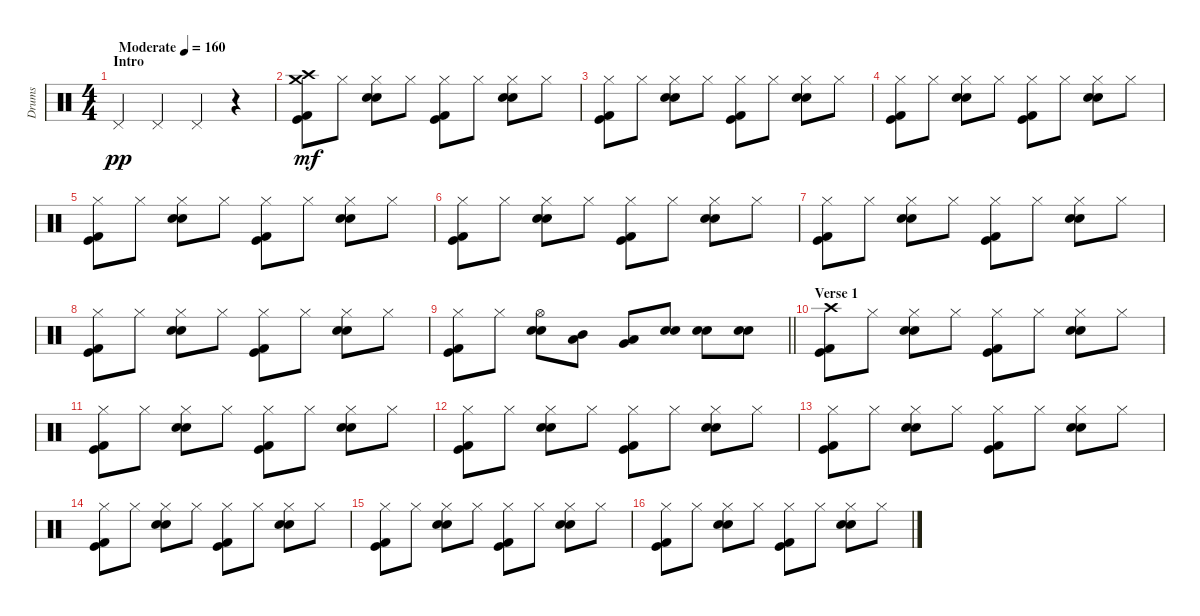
\track ("Drums" "Drums") {instrument percussion}
\staff {score}
\articulation defaults
\ts (4 4)
\section ("" "Intro")
\tempo (160 "Moderate")
\clef neutral
\ks c "Pedal Hi-Hat (hit)".4{dy pp} "Pedal Hi-Hat (hit)".4 "Pedal Hi-Hat (hit)".4
r.4 |
("Crash high (hit)" "Crash medium (hit)" "Kick (hit) 2" "Kick (hit)").8{dy mf} "Hi-Hat (closed)".8 ("Hi-Hat (closed)" "Snare (hit) 2" "Electric Snare (hit)").8 "Hi-Hat (closed)".8 ("Hi-Hat (closed)" "Kick (hit) 2" "Kick (hit)").8 "Hi-Hat (closed)".8 ("Hi-Hat (closed)" "Snare (hit) 2" "Electric Snare (hit)").8 "Hi-Hat (closed)".8 |
("Hi-Hat (closed)" "Kick (hit) 2" "Kick (hit)").8 "Hi-Hat (closed)".8 ("Hi-Hat (closed)" "Snare (hit) 2" "Electric Snare (hit)").8 "Hi-Hat (closed)".8 ("Hi-Hat (closed)" "Kick (hit) 2" "Kick (hit)").8 "Hi-Hat (closed)".8 ("Hi-Hat (closed)" "Snare (hit) 2" "Electric Snare (hit)").8 "Hi-Hat (closed)".8 |
("Hi-Hat (closed)" "Kick (hit) 2" "Kick (hit)").8 "Hi-Hat (closed)".8 ("Hi-Hat (closed)" "Snare (hit) 2" "Electric Snare (hit)").8 "Hi-Hat (closed)".8 ("Hi-Hat (closed)" "Kick (hit) 2" "Kick (hit)").8 "Hi-Hat (closed)".8 ("Hi-Hat (closed)" "Snare (hit) 2" "Electric Snare (hit)").8 "Hi-Hat (closed)".8 |
("Hi-Hat (closed)" "Kick (hit) 2" "Kick (hit)").8 "Hi-Hat (closed)".8 ("Hi-Hat (closed)" "Snare (hit) 2" "Electric Snare (hit)").8 "Hi-Hat (closed)".8 ("Hi-Hat (closed)" "Kick (hit) 2" "Kick (hit)").8 "Hi-Hat (closed)".8 ("Hi-Hat (closed)" "Snare (hit) 2" "Electric Snare (hit)").8 "Hi-Hat (closed)".8 |
("Hi-Hat (closed)" "Kick (hit) 2" "Kick (hit)").8 "Hi-Hat (closed)".8 ("Hi-Hat (closed)" "Snare (hit) 2" "Electric Snare (hit)").8 "Hi-Hat (closed)".8 ("Hi-Hat (closed)" "Kick (hit) 2" "Kick (hit)").8 "Hi-Hat (closed)".8 ("Hi-Hat (closed)" "Snare (hit) 2" "Electric Snare (hit)").8 "Hi-Hat (closed)".8 |
("Hi-Hat (closed)" "Kick (hit) 2" "Kick (hit)").8 "Hi-Hat (closed)".8 ("Hi-Hat (closed)" "Snare (hit) 2" "Electric Snare (hit)").8 "Hi-Hat (closed)".8 ("Hi-Hat (closed)" "Kick (hit) 2" "Kick (hit)").8 "Hi-Hat (closed)".8 ("Hi-Hat (closed)" "Snare (hit) 2" "Electric Snare (hit)").8 "Hi-Hat (closed)".8 |
("Hi-Hat (closed)" "Kick (hit) 2" "Kick (hit)").8 "Hi-Hat (closed)".8 ("Hi-Hat (closed)" "Snare (hit) 2" "Electric Snare (hit)").8 "Hi-Hat (closed)".8 ("Hi-Hat (closed)" "Kick (hit) 2" "Kick (hit)").8 "Hi-Hat (closed)".8 ("Hi-Hat (closed)" "Snare (hit) 2" "Electric Snare (hit)").8 "Hi-Hat (closed)".8 |
\barLineRight lightlight
("Hi-Hat (closed)" "Kick (hit) 2" "Kick (hit)").8 "Hi-Hat (closed)".8 ("Hi-Hat (open)" "Snare (hit) 2" "Electric Snare (hit)").8 ("Low Tom (hit)" "Mid Tom (hit)").8 ("Very Low Tom (hit)" "Low Tom (hit)").8 ("Snare (hit) 2" "Electric Snare (hit)").8 ("Snare (hit) 2" "Electric Snare (hit)").8 ("Snare (hit) 2" "Electric Snare (hit)").8 |
\section ("" "Verse 1")
("Crash high (hit)" "Kick (hit) 2" "Kick (hit)").8 "Hi-Hat (closed)".8 ("Hi-Hat (closed)" "Snare (hit) 2" "Electric Snare (hit)").8 "Hi-Hat (closed)".8 ("Hi-Hat (closed)" "Kick (hit) 2" "Kick (hit)").8 "Hi-Hat (closed)".8 ("Hi-Hat (closed)" "Snare (hit) 2" "Electric Snare (hit)").8 "Hi-Hat (closed)".8 |
("Hi-Hat (closed)" "Kick (hit) 2" "Kick (hit)").8 "Hi-Hat (closed)".8 ("Hi-Hat (closed)" "Snare (hit) 2" "Electric Snare (hit)").8 "Hi-Hat (closed)".8 ("Hi-Hat (closed)" "Kick (hit) 2" "Kick (hit)").8 "Hi-Hat (closed)".8 ("Hi-Hat (closed)" "Snare (hit) 2" "Electric Snare (hit)").8 "Hi-Hat (closed)".8 |
("Hi-Hat (closed)" "Kick (hit) 2" "Kick (hit)").8 "Hi-Hat (closed)".8 ("Hi-Hat (closed)" "Snare (hit) 2" "Electric Snare (hit)").8 "Hi-Hat (closed)".8 ("Hi-Hat (closed)" "Kick (hit) 2" "Kick (hit)").8 "Hi-Hat (closed)".8 ("Hi-Hat (closed)" "Snare (hit) 2" "Electric Snare (hit)").8 "Hi-Hat (closed)".8 |
("Hi-Hat (closed)" "Kick (hit) 2" "Kick (hit)").8 "Hi-Hat (closed)".8 ("Hi-Hat (closed)" "Snare (hit) 2" "Electric Snare (hit)").8 "Hi-Hat (closed)".8 ("Hi-Hat (closed)" "Kick (hit) 2" "Kick (hit)").8 "Hi-Hat (closed)".8 ("Hi-Hat (closed)" "Snare (hit) 2" "Electric Snare (hit)").8 "Hi-Hat (closed)".8 |
("Hi-Hat (closed)" "Kick (hit) 2" "Kick (hit)").8 "Hi-Hat (closed)".8 ("Hi-Hat (closed)" "Snare (hit) 2" "Electric Snare (hit)").8 "Hi-Hat (closed)".8 ("Hi-Hat (closed)" "Kick (hit) 2" "Kick (hit)").8 "Hi-Hat (closed)".8 ("Hi-Hat (closed)" "Snare (hit) 2" "Electric Snare (hit)").8 "Hi-Hat (closed)".8 |
("Hi-Hat (closed)" "Kick (hit) 2" "Kick (hit)").8 "Hi-Hat (closed)".8 ("Hi-Hat (closed)" "Snare (hit) 2" "Electric Snare (hit)").8 "Hi-Hat (closed)".8 ("Hi-Hat (closed)" "Kick (hit) 2" "Kick (hit)").8 "Hi-Hat (closed)".8 ("Hi-Hat (closed)" "Snare (hit) 2" "Electric Snare (hit)").8 "Hi-Hat (closed)".8 |
("Hi-Hat (closed)" "Kick (hit) 2" "Kick (hit)").8 "Hi-Hat (closed)".8 ("Hi-Hat (closed)" "Snare (hit) 2" "Electric Snare (hit)").8 "Hi-Hat (closed)".8 ("Hi-Hat (closed)" "Kick (hit) 2" "Kick (hit)").8 "Hi-Hat (closed)".8 ("Hi-Hat (closed)" "Snare (hit) 2" "Electric Snare (hit)").8 "Hi-Hat (closed)".8
